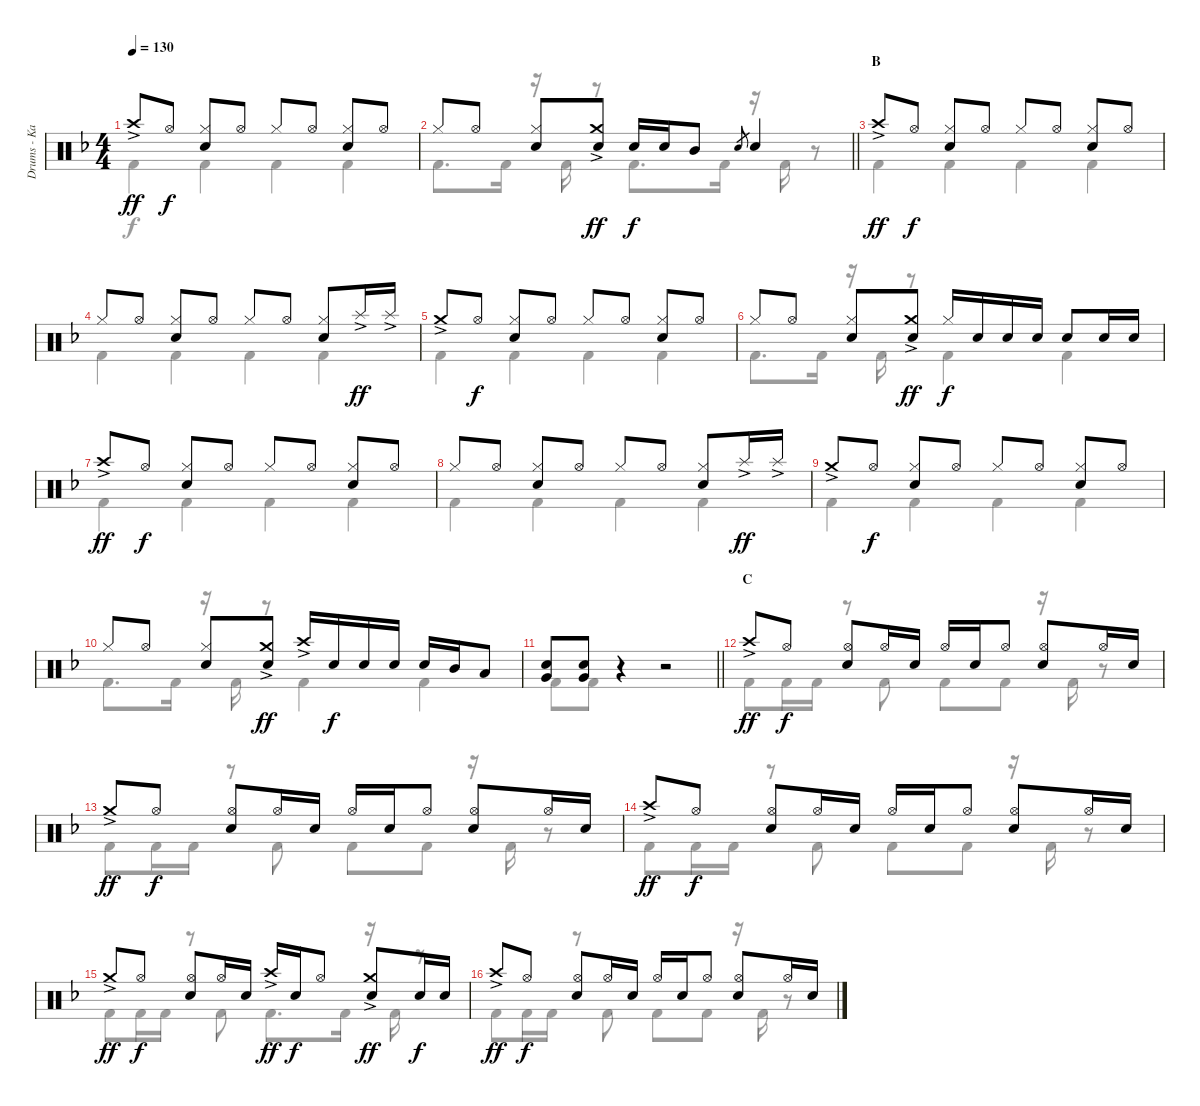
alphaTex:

\track ("Drums - Kai" "Drums - Ka") {instrument percussion}
\staff {score}
\articulation defaults
\voice
\ts (4 4)
\tempo 130
\clef neutral
\ks f "Crash high (hit)"{ac}.8{dy ff} "Hi-Hat (open)".8{dy f}
("Hi-Hat (closed)" "Snare (hit) 2").8 "Hi-Hat (open)".8 "Hi-Hat (closed)".8 "Hi-Hat (open)".8 ("Hi-Hat (closed)" "Snare (hit) 2").8 "Hi-Hat (open)".8 |
\barLineRight lightlight "Hi-Hat (closed)".8 "Hi-Hat (open)".8
("Hi-Hat (closed)" "Snare (hit) 2").8 ("Crash medium (hit)"{ac} "Snare (hit) 2").8{dy ff} "Snare (hit) 2".16{dy f} "Snare (hit) 2".16 "Mid Tom (hit)".8 "Snare (hit) 2".8{gr} "Snare (hit) 2".4 |
\section ("" "B")
"Crash high (hit)"{ac}.8{dy ff} "Hi-Hat (open)".8{dy f} ("Hi-Hat (closed)" "Snare (hit) 2").8 "Hi-Hat (open)".8 "Hi-Hat (closed)".8 "Hi-Hat (open)".8 ("Hi-Hat (closed)" "Snare (hit) 2").8 "Hi-Hat (open)".8 |
"Hi-Hat (closed)".8 "Hi-Hat (open)".8 ("Hi-Hat (closed)" "Snare (hit) 2").8 "Hi-Hat (open)".8 "Hi-Hat (closed)".8 "Hi-Hat (open)".8 ("Hi-Hat (closed)" "Snare (hit) 2").8 "Splash (hit)"{ac}.16{dy ff} "Splash (hit)"{ac}.16 |
"Crash medium (hit)"{ac}.8 "Hi-Hat (open)".8{dy f} ("Hi-Hat (closed)" "Snare (hit) 2").8 "Hi-Hat (open)".8 "Hi-Hat (closed)".8 "Hi-Hat (open)".8 ("Hi-Hat (closed)" "Snare (hit) 2").8 "Hi-Hat (open)".8 |
"Hi-Hat (closed)".8 "Hi-Hat (open)".8 ("Hi-Hat (closed)" "Snare (hit) 2").8 ("Crash medium (hit)"{ac} "Snare (hit) 2").8{dy ff} "Hi-Hat (closed)".16{dy f} "Snare (hit) 2".16 "Snare (hit) 2".16 "Snare (hit) 2".16 "Snare (hit) 2".8 "Snare (hit) 2".16 "Snare (hit) 2".16 |
"Crash high (hit)"{ac}.8{dy ff} "Hi-Hat (open)".8{dy f} ("Hi-Hat (closed)" "Snare (hit) 2").8 "Hi-Hat (open)".8 "Hi-Hat (closed)".8 "Hi-Hat (open)".8 ("Hi-Hat (closed)" "Snare (hit) 2").8 "Hi-Hat (open)".8 |
"Hi-Hat (closed)".8 "Hi-Hat (open)".8 ("Hi-Hat (closed)" "Snare (hit) 2").8 "Hi-Hat (open)".8 "Hi-Hat (closed)".8 "Hi-Hat (open)".8 ("Hi-Hat (closed)" "Snare (hit) 2").8 "Splash (hit)"{ac}.16{dy ff} "Splash (hit)"{ac}.16 |
"Crash medium (hit)"{ac}.8 "Hi-Hat (open)".8{dy f} ("Hi-Hat (closed)" "Snare (hit) 2").8 "Hi-Hat (open)".8 "Hi-Hat (closed)".8 "Hi-Hat (open)".8 ("Hi-Hat (closed)" "Snare (hit) 2").8 "Hi-Hat (open)".8 |
"Hi-Hat (closed)".8 "Hi-Hat (open)".8 ("Hi-Hat (closed)" "Snare (hit) 2").8 ("Crash medium (hit)"{ac} "Snare (hit) 2").8{dy ff} "Crash high (hit)"{ac}.16 "Snare (hit) 2".16{dy f} "Snare (hit) 2".16 "Snare (hit) 2".16 "Snare (hit) 2".16 "Mid Tom (hit)".16 "Low Tom (hit)".8 |
\barLineRight lightlight
("Very Low Tom (hit)" "Snare (hit) 2").8 ("Very Low Tom (hit)" "Snare (hit) 2").8 r.4 r.2 |
\section ("" "C")
"Crash high (hit)"{ac}.8{dy ff} "Hi-Hat (open)".8{dy f} ("Hi-Hat (open)" "Snare (hit) 2").8 "Hi-Hat (open)".16 "Snare (hit) 2".16 "Hi-Hat (open)".16 "Snare (hit) 2".16 "Hi-Hat (open)".8 ("Hi-Hat (open)" "Snare (hit) 2").8 "Hi-Hat (open)".16 "Snare (hit) 2".16 |
"Crash medium (hit)"{ac}.8{dy ff} "Hi-Hat (open)".8{dy f} ("Hi-Hat (open)" "Snare (hit) 2").8 "Hi-Hat (open)".16 "Snare (hit) 2".16 "Hi-Hat (open)".16 "Snare (hit) 2".16 "Hi-Hat (open)".8 ("Hi-Hat (open)" "Snare (hit) 2").8 "Hi-Hat (open)".16 "Snare (hit) 2".16 |
"Crash high (hit)"{ac}.8{dy ff} "Hi-Hat (open)".8{dy f} ("Hi-Hat (open)" "Snare (hit) 2").8 "Hi-Hat (open)".16 "Snare (hit) 2".16 "Hi-Hat (open)".16 "Snare (hit) 2".16 "Hi-Hat (open)".8 ("Hi-Hat (open)" "Snare (hit) 2").8 "Hi-Hat (open)".16 "Snare (hit) 2".16 |
"Crash medium (hit)"{ac}.8{dy ff} "Hi-Hat (open)".8{dy f} ("Hi-Hat (open)" "Snare (hit) 2").8 "Hi-Hat (open)".16 "Snare (hit) 2".16 "Crash high (hit)"{ac}.16{dy ff} "Snare (hit) 2".16{dy f} "Hi-Hat (open)".8 ("Crash medium (hit)"{ac} "Snare (hit) 2").8{dy ff} "Snare (hit) 2".16{dy f} "Snare (hit) 2".16 |
"Crash high (hit)"{ac}.8{dy ff} "Hi-Hat (open)".8{dy f} ("Hi-Hat (open)" "Snare (hit) 2").8 "Hi-Hat (open)".16 "Snare (hit) 2".16 "Hi-Hat (open)".16 "Snare (hit) 2".16 "Hi-Hat (open)".8 ("Hi-Hat (open)" "Snare (hit) 2").8 "Hi-Hat (open)".16 "Snare (hit) 2".16
\voice
\clef neutral
\ottava regular
\simile none
\ks f "Kick (hit) 2".4{dy f} "Kick (hit) 2".4 "Kick (hit) 2".4 "Kick (hit) 2".4
|
\barLineRight lightlight "Kick (hit) 2".8{d} "Kick (hit) 2".16
r.16 "Kick (hit) 2".16 r.8 "Kick (hit) 2".8{d} "Kick (hit) 2".16 r.16 "Kick (hit) 2".16 r.8 |
"Kick (hit) 2".4 "Kick (hit) 2".4 "Kick (hit) 2".4 "Kick (hit) 2".4 |
"Kick (hit) 2".4 "Kick (hit) 2".4 "Kick (hit) 2".4 "Kick (hit) 2".4 |
"Kick (hit) 2".4 "Kick (hit) 2".4 "Kick (hit) 2".4 "Kick (hit) 2".4 |
"Kick (hit) 2".8{d} "Kick (hit) 2".16 r.16 "Kick (hit) 2".16 r.8 "Kick (hit) 2".4 "Kick (hit) 2".4 |
"Kick (hit) 2".4 "Kick (hit) 2".4 "Kick (hit) 2".4 "Kick (hit) 2".4 |
"Kick (hit) 2".4 "Kick (hit) 2".4 "Kick (hit) 2".4 "Kick (hit) 2".4 |
"Kick (hit) 2".4 "Kick (hit) 2".4 "Kick (hit) 2".4 "Kick (hit) 2".4 |
"Kick (hit) 2".8{d} "Kick (hit) 2".16 r.16 "Kick (hit) 2".16 r.8 "Kick (hit) 2".4 "Kick (hit) 2".4 |
\barLineRight lightlight "Kick (hit) 2".8 "Kick (hit) 2".8
r.4 r.2 |
"Kick (hit) 2".8 "Kick (hit) 2".16 "Kick (hit) 2".16 r.8 "Kick (hit) 2".8 "Kick (hit) 2".8 "Kick (hit) 2".8 r.16 "Kick (hit) 2".16 r.8 |
"Kick (hit) 2".8 "Kick (hit) 2".16 "Kick (hit) 2".16 r.8 "Kick (hit) 2".8 "Kick (hit) 2".8 "Kick (hit) 2".8 r.16 "Kick (hit) 2".16 r.8 |
"Kick (hit) 2".8 "Kick (hit) 2".16 "Kick (hit) 2".16 r.8 "Kick (hit) 2".8 "Kick (hit) 2".8 "Kick (hit) 2".8 r.16 "Kick (hit) 2".16 r.8 |
"Kick (hit) 2".8 "Kick (hit) 2".16 "Kick (hit) 2".16 r.8 "Kick (hit) 2".8 "Kick (hit) 2".8{d} "Kick (hit) 2".16 r.16 "Kick (hit) 2".16 r.8 |
"Kick (hit) 2".8 "Kick (hit) 2".16 "Kick (hit) 2".16 r.8 "Kick (hit) 2".8 "Kick (hit) 2".8 "Kick (hit) 2".8 r.16 "Kick (hit) 2".16 r.8
